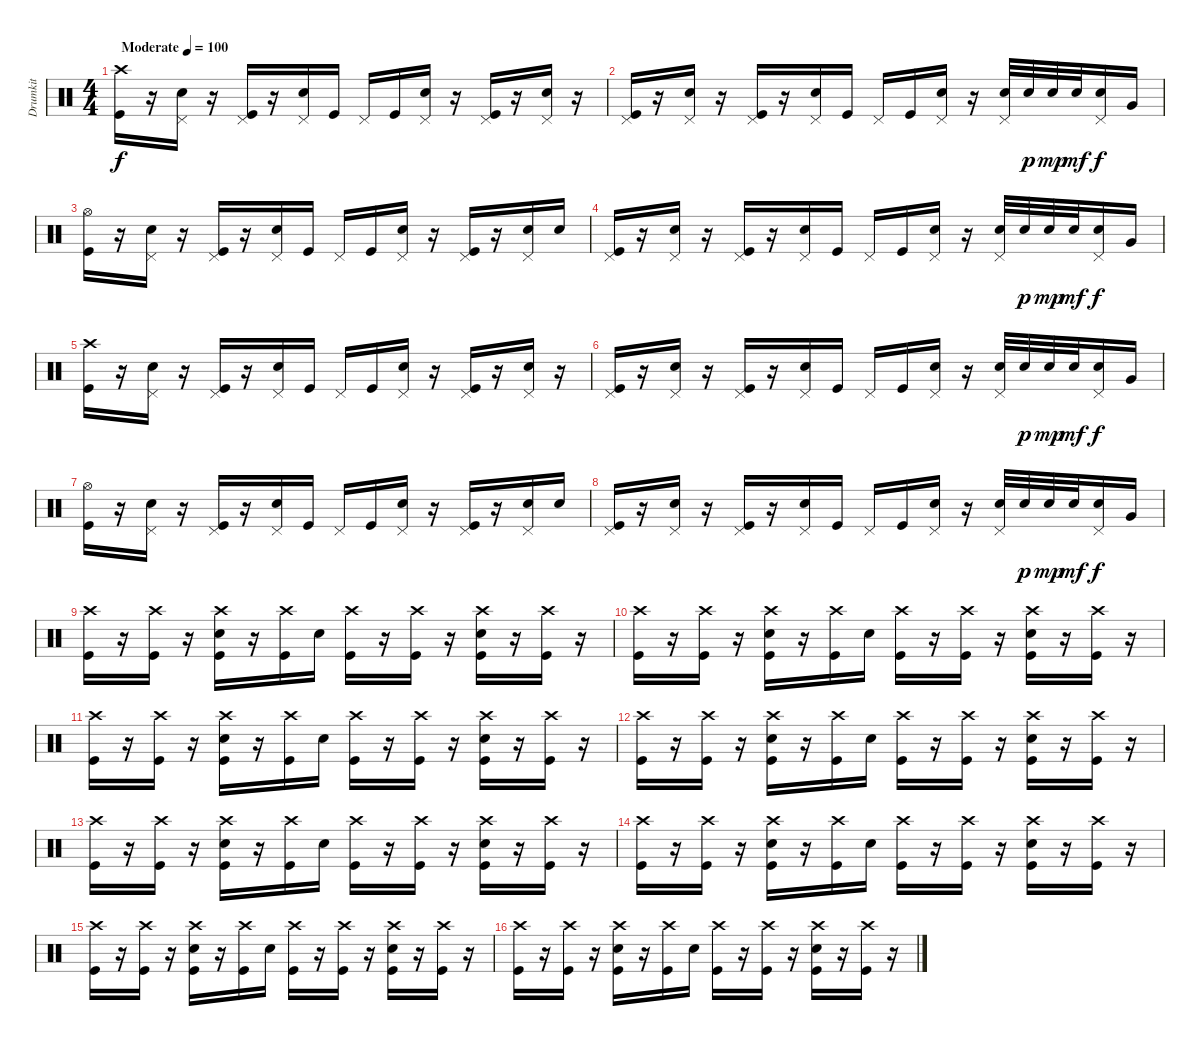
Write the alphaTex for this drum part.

\track ("Drumkit" "Drumkit") {instrument percussion}
\staff {score}
\articulation defaults
\ts (4 4)
\tempo (100 "Moderate")
\clef neutral
\ks c
("Crash high (hit)" "Kick (hit)").16{dy f} r.16 ("Pedal Hi-Hat (hit)" "Snare (hit) 2").16 r.16 ("Pedal Hi-Hat (hit)" "Kick (hit)").16 r.16 ("Pedal Hi-Hat (hit)" "Snare (hit) 2").16 "Kick (hit)".16 "Pedal Hi-Hat (hit)".16 "Kick (hit)".16 ("Pedal Hi-Hat (hit)" "Snare (hit) 2").16 r.16 ("Pedal Hi-Hat (hit)" "Kick (hit)").16 r.16 ("Pedal Hi-Hat (hit)" "Snare (hit) 2").16 r.16 |
("Pedal Hi-Hat (hit)" "Kick (hit)").16 r.16 ("Pedal Hi-Hat (hit)" "Snare (hit) 2").16 r.16 ("Pedal Hi-Hat (hit)" "Kick (hit)").16 r.16 ("Pedal Hi-Hat (hit)" "Snare (hit) 2").16 "Kick (hit)".16 "Pedal Hi-Hat (hit)".16 "Kick (hit)".16 ("Pedal Hi-Hat (hit)" "Snare (hit) 2").16 r.16 ("Pedal Hi-Hat (hit)" "Snare (hit) 2").32 "Snare (hit) 2".32{dy p} "Snare (hit) 2".32{dy mp} "Snare (hit) 2".32{dy mf} ("Pedal Hi-Hat (hit)" "Snare (hit) 2").16{dy f} "Very Low Tom (hit)".16 |
("Hi-Hat (open)" "Kick (hit)").16 r.16 ("Pedal Hi-Hat (hit)" "Snare (hit) 2").16 r.16 ("Pedal Hi-Hat (hit)" "Kick (hit)").16 r.16 ("Pedal Hi-Hat (hit)" "Snare (hit) 2").16 "Kick (hit)".16 "Pedal Hi-Hat (hit)".16 "Kick (hit)".16 ("Pedal Hi-Hat (hit)" "Snare (hit) 2").16 r.16 ("Pedal Hi-Hat (hit)" "Kick (hit)").16 r.16 ("Pedal Hi-Hat (hit)" "Snare (hit) 2").16 "Snare (hit) 2".16 |
("Pedal Hi-Hat (hit)" "Kick (hit)").16 r.16 ("Pedal Hi-Hat (hit)" "Snare (hit) 2").16 r.16 ("Pedal Hi-Hat (hit)" "Kick (hit)").16 r.16 ("Pedal Hi-Hat (hit)" "Snare (hit) 2").16 "Kick (hit)".16 "Pedal Hi-Hat (hit)".16 "Kick (hit)".16 ("Pedal Hi-Hat (hit)" "Snare (hit) 2").16 r.16 ("Pedal Hi-Hat (hit)" "Snare (hit) 2").32 "Snare (hit) 2".32{dy p} "Snare (hit) 2".32{dy mp} "Snare (hit) 2".32{dy mf} ("Pedal Hi-Hat (hit)" "Snare (hit) 2").16{dy f} "Very Low Tom (hit)".16 |
("Crash high (hit)" "Kick (hit)").16 r.16 ("Pedal Hi-Hat (hit)" "Snare (hit) 2").16 r.16 ("Pedal Hi-Hat (hit)" "Kick (hit)").16 r.16 ("Pedal Hi-Hat (hit)" "Snare (hit) 2").16 "Kick (hit)".16 "Pedal Hi-Hat (hit)".16 "Kick (hit)".16 ("Pedal Hi-Hat (hit)" "Snare (hit) 2").16 r.16 ("Pedal Hi-Hat (hit)" "Kick (hit)").16 r.16 ("Pedal Hi-Hat (hit)" "Snare (hit) 2").16 r.16 |
("Pedal Hi-Hat (hit)" "Kick (hit)").16 r.16 ("Pedal Hi-Hat (hit)" "Snare (hit) 2").16 r.16 ("Pedal Hi-Hat (hit)" "Kick (hit)").16 r.16 ("Pedal Hi-Hat (hit)" "Snare (hit) 2").16 "Kick (hit)".16 "Pedal Hi-Hat (hit)".16 "Kick (hit)".16 ("Pedal Hi-Hat (hit)" "Snare (hit) 2").16 r.16 ("Pedal Hi-Hat (hit)" "Snare (hit) 2").32 "Snare (hit) 2".32{dy p} "Snare (hit) 2".32{dy mp} "Snare (hit) 2".32{dy mf} ("Pedal Hi-Hat (hit)" "Snare (hit) 2").16{dy f} "Very Low Tom (hit)".16 |
("Hi-Hat (open)" "Kick (hit)").16 r.16 ("Pedal Hi-Hat (hit)" "Snare (hit) 2").16 r.16 ("Pedal Hi-Hat (hit)" "Kick (hit)").16 r.16 ("Pedal Hi-Hat (hit)" "Snare (hit) 2").16 "Kick (hit)".16 "Pedal Hi-Hat (hit)".16 "Kick (hit)".16 ("Pedal Hi-Hat (hit)" "Snare (hit) 2").16 r.16 ("Pedal Hi-Hat (hit)" "Kick (hit)").16 r.16 ("Pedal Hi-Hat (hit)" "Snare (hit) 2").16 "Snare (hit) 2".16 |
("Pedal Hi-Hat (hit)" "Kick (hit)").16 r.16 ("Pedal Hi-Hat (hit)" "Snare (hit) 2").16 r.16 ("Pedal Hi-Hat (hit)" "Kick (hit)").16 r.16 ("Pedal Hi-Hat (hit)" "Snare (hit) 2").16 "Kick (hit)".16 "Pedal Hi-Hat (hit)".16 "Kick (hit)".16 ("Pedal Hi-Hat (hit)" "Snare (hit) 2").16 r.16 ("Pedal Hi-Hat (hit)" "Snare (hit) 2").32 "Snare (hit) 2".32{dy p} "Snare (hit) 2".32{dy mp} "Snare (hit) 2".32{dy mf} ("Pedal Hi-Hat (hit)" "Snare (hit) 2").16{dy f} "Very Low Tom (hit)".16 |
("Crash high (hit)" "Kick (hit)").16 r.16 ("Crash high (hit)" "Kick (hit)").16 r.16 ("Crash high (hit)" "Snare (hit) 2" "Kick (hit)").16 r.16 ("Crash high (hit)" "Kick (hit)").16 "Snare (hit) 2".16 ("Crash high (hit)" "Kick (hit)").16 r.16 ("Crash high (hit)" "Kick (hit)").16 r.16 ("Crash high (hit)" "Snare (hit) 2" "Kick (hit)").16 r.16 ("Crash high (hit)" "Kick (hit)").16 r.16 |
("Crash high (hit)" "Kick (hit)").16 r.16 ("Crash high (hit)" "Kick (hit)").16 r.16 ("Crash high (hit)" "Snare (hit) 2" "Kick (hit)").16 r.16 ("Crash high (hit)" "Kick (hit)").16 "Snare (hit) 2".16 ("Crash high (hit)" "Kick (hit)").16 r.16 ("Crash high (hit)" "Kick (hit)").16 r.16 ("Crash high (hit)" "Snare (hit) 2" "Kick (hit)").16 r.16 ("Crash high (hit)" "Kick (hit)").16 r.16 |
("Crash high (hit)" "Kick (hit)").16 r.16 ("Crash high (hit)" "Kick (hit)").16 r.16 ("Crash high (hit)" "Snare (hit) 2" "Kick (hit)").16 r.16 ("Crash high (hit)" "Kick (hit)").16 "Snare (hit) 2".16 ("Crash high (hit)" "Kick (hit)").16 r.16 ("Crash high (hit)" "Kick (hit)").16 r.16 ("Crash high (hit)" "Snare (hit) 2" "Kick (hit)").16 r.16 ("Crash high (hit)" "Kick (hit)").16 r.16 |
("Crash high (hit)" "Kick (hit)").16 r.16 ("Crash high (hit)" "Kick (hit)").16 r.16 ("Crash high (hit)" "Snare (hit) 2" "Kick (hit)").16 r.16 ("Crash high (hit)" "Kick (hit)").16 "Snare (hit) 2".16 ("Crash high (hit)" "Kick (hit)").16 r.16 ("Crash high (hit)" "Kick (hit)").16 r.16 ("Crash high (hit)" "Snare (hit) 2" "Kick (hit)").16 r.16 ("Crash high (hit)" "Kick (hit)").16 r.16 |
("Crash high (hit)" "Kick (hit)").16 r.16 ("Crash high (hit)" "Kick (hit)").16 r.16 ("Crash high (hit)" "Snare (hit) 2" "Kick (hit)").16 r.16 ("Crash high (hit)" "Kick (hit)").16 "Snare (hit) 2".16 ("Crash high (hit)" "Kick (hit)").16 r.16 ("Crash high (hit)" "Kick (hit)").16 r.16 ("Crash high (hit)" "Snare (hit) 2" "Kick (hit)").16 r.16 ("Crash high (hit)" "Kick (hit)").16 r.16 |
("Crash high (hit)" "Kick (hit)").16 r.16 ("Crash high (hit)" "Kick (hit)").16 r.16 ("Crash high (hit)" "Snare (hit) 2" "Kick (hit)").16 r.16 ("Crash high (hit)" "Kick (hit)").16 "Snare (hit) 2".16 ("Crash high (hit)" "Kick (hit)").16 r.16 ("Crash high (hit)" "Kick (hit)").16 r.16 ("Crash high (hit)" "Snare (hit) 2" "Kick (hit)").16 r.16 ("Crash high (hit)" "Kick (hit)").16 r.16 |
("Crash high (hit)" "Kick (hit)").16 r.16 ("Crash high (hit)" "Kick (hit)").16 r.16 ("Crash high (hit)" "Snare (hit) 2" "Kick (hit)").16 r.16 ("Crash high (hit)" "Kick (hit)").16 "Snare (hit) 2".16 ("Crash high (hit)" "Kick (hit)").16 r.16 ("Crash high (hit)" "Kick (hit)").16 r.16 ("Crash high (hit)" "Snare (hit) 2" "Kick (hit)").16 r.16 ("Crash high (hit)" "Kick (hit)").16 r.16 |
("Crash high (hit)" "Kick (hit)").16 r.16 ("Crash high (hit)" "Kick (hit)").16 r.16 ("Crash high (hit)" "Snare (hit) 2" "Kick (hit)").16 r.16 ("Crash high (hit)" "Kick (hit)").16 "Snare (hit) 2".16 ("Crash high (hit)" "Kick (hit)").16 r.16 ("Crash high (hit)" "Kick (hit)").16 r.16 ("Crash high (hit)" "Snare (hit) 2" "Kick (hit)").16 r.16 ("Crash high (hit)" "Kick (hit)").16 r.16
